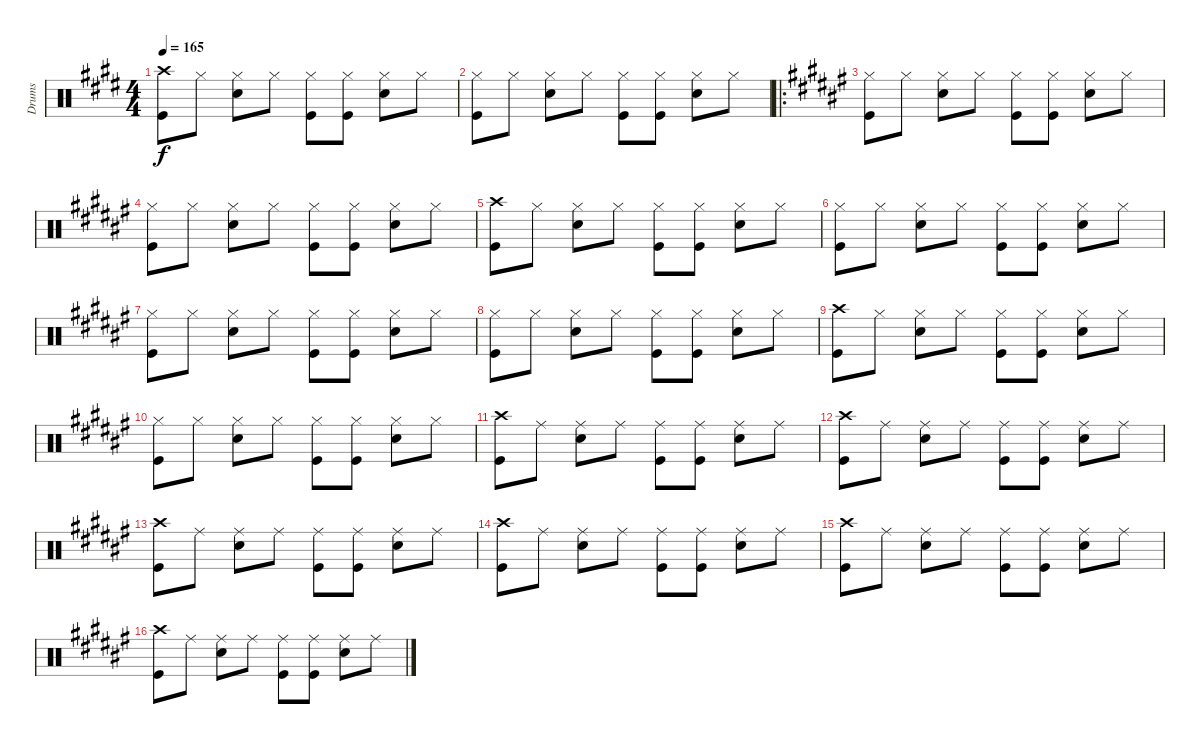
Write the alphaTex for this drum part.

\track ("Drums" "Drums") {instrument percussion}
\staff {score}
\articulation defaults
\ts (4 4)
\tempo 165
\clef neutral
\ks e
("Crash high (hit)" "Kick (hit)").8{dy f} "Hi-Hat (closed)".8 ("Hi-Hat (closed)" "Snare (hit) 2").8 "Hi-Hat (closed)".8 ("Hi-Hat (closed)" "Kick (hit)").8 ("Hi-Hat (closed)" "Kick (hit)").8 ("Hi-Hat (closed)" "Snare (hit) 2").8 "Hi-Hat (closed)".8 |
("Hi-Hat (closed)" "Kick (hit)").8 "Hi-Hat (closed)".8 ("Hi-Hat (closed)" "Snare (hit) 2").8 "Hi-Hat (closed)".8 ("Hi-Hat (closed)" "Kick (hit)").8 ("Hi-Hat (closed)" "Kick (hit)").8 ("Hi-Hat (closed)" "Snare (hit) 2").8 "Hi-Hat (closed)".8 |
\ro
\ks f#
("Hi-Hat (closed)" "Kick (hit)").8 "Hi-Hat (closed)".8 ("Hi-Hat (closed)" "Snare (hit) 2").8 "Hi-Hat (closed)".8 ("Hi-Hat (closed)" "Kick (hit)").8 ("Hi-Hat (closed)" "Kick (hit)").8 ("Hi-Hat (closed)" "Snare (hit) 2").8 "Hi-Hat (closed)".8 |
("Hi-Hat (closed)" "Kick (hit)").8 "Hi-Hat (closed)".8 ("Hi-Hat (closed)" "Snare (hit) 2").8 "Hi-Hat (closed)".8 ("Hi-Hat (closed)" "Kick (hit)").8 ("Hi-Hat (closed)" "Kick (hit)").8 ("Hi-Hat (closed)" "Snare (hit) 2").8 "Hi-Hat (closed)".8 |
("Crash high (hit)" "Kick (hit)").8 "Hi-Hat (closed)".8 ("Hi-Hat (closed)" "Snare (hit) 2").8 "Hi-Hat (closed)".8 ("Hi-Hat (closed)" "Kick (hit)").8 ("Hi-Hat (closed)" "Kick (hit)").8 ("Hi-Hat (closed)" "Snare (hit) 2").8 "Hi-Hat (closed)".8 |
("Hi-Hat (closed)" "Kick (hit)").8 "Hi-Hat (closed)".8 ("Hi-Hat (closed)" "Snare (hit) 2").8 "Hi-Hat (closed)".8 ("Hi-Hat (closed)" "Kick (hit)").8 ("Hi-Hat (closed)" "Kick (hit)").8 ("Hi-Hat (closed)" "Snare (hit) 2").8 "Hi-Hat (closed)".8 |
("Hi-Hat (closed)" "Kick (hit)").8 "Hi-Hat (closed)".8 ("Hi-Hat (closed)" "Snare (hit) 2").8 "Hi-Hat (closed)".8 ("Hi-Hat (closed)" "Kick (hit)").8 ("Hi-Hat (closed)" "Kick (hit)").8 ("Hi-Hat (closed)" "Snare (hit) 2").8 "Hi-Hat (closed)".8 |
("Hi-Hat (closed)" "Kick (hit)").8 "Hi-Hat (closed)".8 ("Hi-Hat (closed)" "Snare (hit) 2").8 "Hi-Hat (closed)".8 ("Hi-Hat (closed)" "Kick (hit)").8 ("Hi-Hat (closed)" "Kick (hit)").8 ("Hi-Hat (closed)" "Snare (hit) 2").8 "Hi-Hat (closed)".8 |
("Crash high (hit)" "Kick (hit)").8 "Hi-Hat (closed)".8 ("Hi-Hat (closed)" "Snare (hit) 2").8 "Hi-Hat (closed)".8 ("Hi-Hat (closed)" "Kick (hit)").8 ("Hi-Hat (closed)" "Kick (hit)").8 ("Hi-Hat (closed)" "Snare (hit) 2").8 "Hi-Hat (closed)".8 |
("Hi-Hat (closed)" "Kick (hit)").8 "Hi-Hat (closed)".8 ("Hi-Hat (closed)" "Snare (hit) 2").8 "Hi-Hat (closed)".8 ("Hi-Hat (closed)" "Kick (hit)").8 ("Hi-Hat (closed)" "Kick (hit)").8 ("Hi-Hat (closed)" "Snare (hit) 2").8 "Hi-Hat (closed)".8 |
("Crash high (hit)" "Kick (hit)").8 "Ride (middle)".8 ("Ride (middle)" "Snare (hit) 2").8 "Ride (middle)".8 ("Ride (middle)" "Kick (hit)").8 ("Ride (middle)" "Kick (hit)").8 ("Ride (middle)" "Snare (hit) 2").8 "Ride (middle)".8 |
("Crash high (hit)" "Kick (hit)").8 "Ride (middle)".8 ("Ride (middle)" "Snare (hit) 2").8 "Ride (middle)".8 ("Ride (middle)" "Kick (hit)").8 ("Ride (middle)" "Kick (hit)").8 ("Ride (middle)" "Snare (hit) 2").8 "Ride (middle)".8 |
("Crash high (hit)" "Kick (hit)").8 "Ride (middle)".8 ("Ride (middle)" "Snare (hit) 2").8 "Ride (middle)".8 ("Ride (middle)" "Kick (hit)").8 ("Ride (middle)" "Kick (hit)").8 ("Ride (middle)" "Snare (hit) 2").8 "Ride (middle)".8 |
("Crash high (hit)" "Kick (hit)").8 "Ride (middle)".8 ("Ride (middle)" "Snare (hit) 2").8 "Ride (middle)".8 ("Ride (middle)" "Kick (hit)").8 ("Ride (middle)" "Kick (hit)").8 ("Ride (middle)" "Snare (hit) 2").8 "Ride (middle)".8 |
("Crash high (hit)" "Kick (hit)").8 "Ride (middle)".8 ("Ride (middle)" "Snare (hit) 2").8 "Ride (middle)".8 ("Ride (middle)" "Kick (hit)").8 ("Ride (middle)" "Kick (hit)").8 ("Ride (middle)" "Snare (hit) 2").8 "Ride (middle)".8 |
("Crash high (hit)" "Kick (hit)").8 "Ride (middle)".8 ("Ride (middle)" "Snare (hit) 2").8 "Ride (middle)".8 ("Ride (middle)" "Kick (hit)").8 ("Ride (middle)" "Kick (hit)").8 ("Ride (middle)" "Snare (hit) 2").8 "Ride (middle)".8
